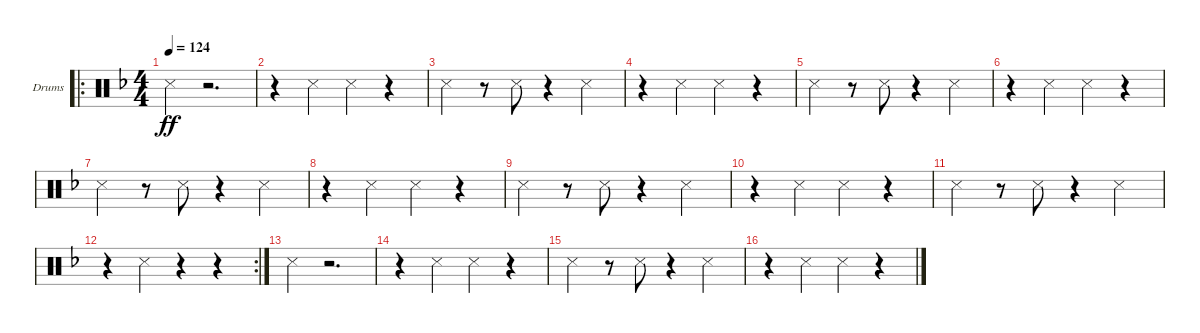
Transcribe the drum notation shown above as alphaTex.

\bracketExtendMode groupsimilarinstruments
\firstSystemTrackNameOrientation horizontal
\otherSystemsTrackNameOrientation horizontal
\track ("Sidestick Clave Pattern" "Drums") {instrument percussion}
\staff {score}
\articulation defaults
\ro
\ts (4 4)
\tempo 124
\clef neutral
\scale
0.527426
\ks dminor "Snare (side stick) 3".4{dy ff}
r.2{d} |
\scale
0.236287 r.4 "Snare (side stick) 3".4 "Snare (side stick) 3".4 r.4 |
\scale
0.236287 "Snare (side stick) 3".4 r.8 "Snare (side stick) 3".8 r.4 "Snare (side stick) 3".4 |
\scale
0.333333 r.4 "Snare (side stick) 3".4 "Snare (side stick) 3".4 r.4 |
\scale
0.333333 "Snare (side stick) 3".4 r.8 "Snare (side stick) 3".8 r.4 "Snare (side stick) 3".4 |
\scale
0.333333 r.4 "Snare (side stick) 3".4 "Snare (side stick) 3".4 r.4 |
\scale
0.333333 "Snare (side stick) 3".4 r.8 "Snare (side stick) 3".8 r.4 "Snare (side stick) 3".4 |
\scale
0.333333 r.4 "Snare (side stick) 3".4 "Snare (side stick) 3".4 r.4 |
\scale
0.333333 "Snare (side stick) 3".4 r.8 "Snare (side stick) 3".8 r.4 "Snare (side stick) 3".4 |
\scale
0.321839 r.4 "Snare (side stick) 3".4 "Snare (side stick) 3".4 r.4 |
\scale
0.321839 "Snare (side stick) 3".4 r.8 "Snare (side stick) 3".8 r.4 "Snare (side stick) 3".4 |
\rc 2
\scale
0.356322 r.4 "Snare (side stick) 3".4 r.4 r.4 |
\scale
0.333333 "Snare (side stick) 3".4 r.2{d} |
\scale
0.333333 r.4 "Snare (side stick) 3".4 "Snare (side stick) 3".4 r.4 |
\scale
0.333333 "Snare (side stick) 3".4 r.8 "Snare (side stick) 3".8 r.4 "Snare (side stick) 3".4 |
\scale
0.333333 r.4 "Snare (side stick) 3".4 "Snare (side stick) 3".4 r.4
